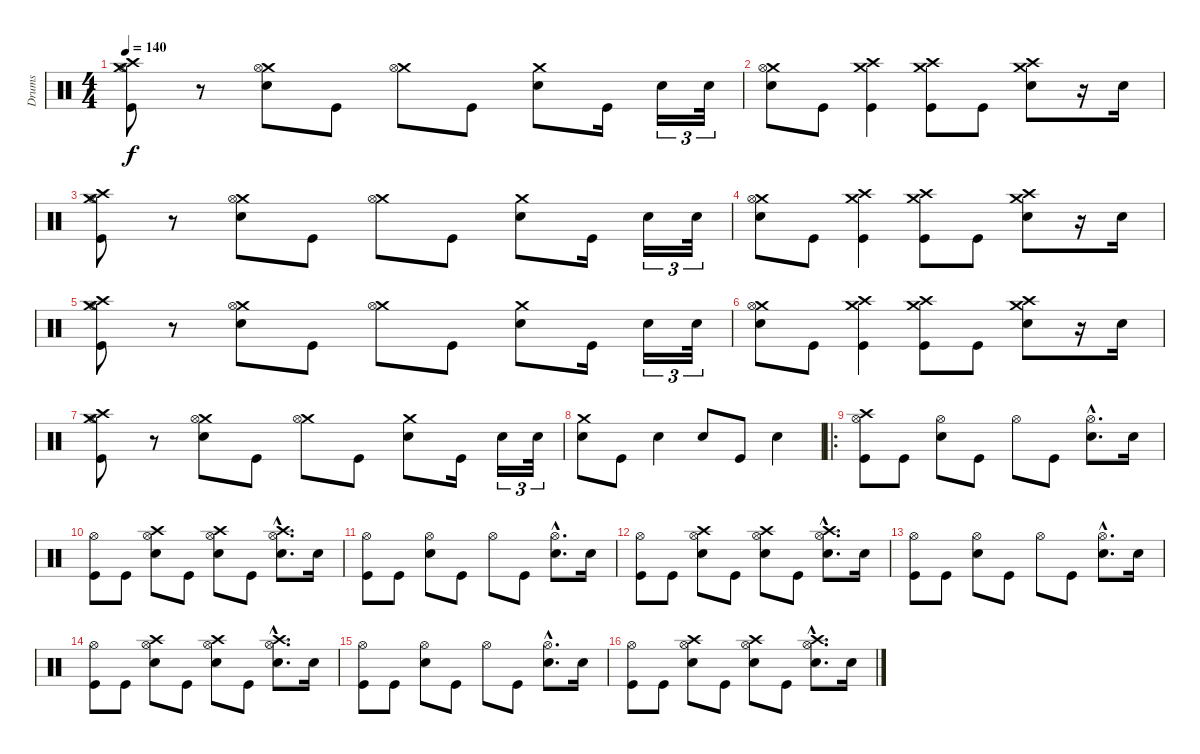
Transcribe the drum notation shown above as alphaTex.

\track ("Drums" "Drums") {instrument percussion}
\staff {score}
\articulation defaults
\ts (4 4)
\tempo 140
\clef neutral
\ks c
("Crash medium (hit)" "Hi-Hat (open)" "Crash high (hit)" "Kick (hit)").8{dy f} r.8 ("Crash medium (hit)" "Electric Snare (hit)" "Hi-Hat (open)").8 "Kick (hit)".8 ("Crash medium (hit)" "Hi-Hat (open)").8 "Kick (hit)".8 ("Crash medium (hit)" "Electric Snare (hit)").8 "Kick (hit)".16 "Electric Snare (hit)".16{tu (3 2)} "Electric Snare (hit)".32{tu (3 2)} |
("Crash medium (hit)" "Hi-Hat (open)" "Electric Snare (hit)").8 "Kick (hit)".8 ("Crash high (hit)" "Crash medium (hit)" "Kick (hit)").4 ("Crash high (hit)" "Crash medium (hit)" "Kick (hit)").8 "Kick (hit)".8 ("Crash high (hit)" "Crash medium (hit)" "Electric Snare (hit)").8 r.16 "Electric Snare (hit)".16 |
("Crash medium (hit)" "Hi-Hat (open)" "Crash high (hit)" "Kick (hit)").8 r.8 ("Crash medium (hit)" "Electric Snare (hit)" "Hi-Hat (open)").8 "Kick (hit)".8 ("Crash medium (hit)" "Hi-Hat (open)").8 "Kick (hit)".8 ("Crash medium (hit)" "Electric Snare (hit)").8 "Kick (hit)".16 "Electric Snare (hit)".16{tu (3 2)} "Electric Snare (hit)".32{tu (3 2)} |
("Crash medium (hit)" "Hi-Hat (open)" "Electric Snare (hit)").8 "Kick (hit)".8 ("Crash high (hit)" "Crash medium (hit)" "Kick (hit)").4 ("Crash high (hit)" "Crash medium (hit)" "Kick (hit)").8 "Kick (hit)".8 ("Crash high (hit)" "Crash medium (hit)" "Electric Snare (hit)").8 r.16 "Electric Snare (hit)".16 |
("Crash medium (hit)" "Hi-Hat (open)" "Crash high (hit)" "Kick (hit)").8 r.8 ("Crash medium (hit)" "Electric Snare (hit)" "Hi-Hat (open)").8 "Kick (hit)".8 ("Crash medium (hit)" "Hi-Hat (open)").8 "Kick (hit)".8 ("Crash medium (hit)" "Electric Snare (hit)").8 "Kick (hit)".16 "Electric Snare (hit)".16{tu (3 2)} "Electric Snare (hit)".32{tu (3 2)} |
("Crash medium (hit)" "Hi-Hat (open)" "Electric Snare (hit)").8 "Kick (hit)".8 ("Crash high (hit)" "Crash medium (hit)" "Kick (hit)").4 ("Crash high (hit)" "Crash medium (hit)" "Kick (hit)").8 "Kick (hit)".8 ("Crash high (hit)" "Crash medium (hit)" "Electric Snare (hit)").8 r.16 "Electric Snare (hit)".16 |
("Crash medium (hit)" "Hi-Hat (open)" "Crash high (hit)" "Kick (hit)").8 r.8 ("Crash medium (hit)" "Electric Snare (hit)" "Hi-Hat (open)").8 "Kick (hit)".8 ("Crash medium (hit)" "Hi-Hat (open)").8 "Kick (hit)".8 ("Crash medium (hit)" "Electric Snare (hit)").8 "Kick (hit)".16 "Electric Snare (hit)".16{tu (3 2)} "Electric Snare (hit)".32{tu (3 2)} |
("Crash medium (hit)" "Electric Snare (hit)").8 "Kick (hit)".8 "Electric Snare (hit)".4 "Electric Snare (hit)".8 "Kick (hit)".8 "Electric Snare (hit)".4 |
\ro
("Hi-Hat (open)" "Kick (hit)" "Crash high (hit)").8 "Kick (hit)".8 ("Hi-Hat (open)" "Electric Snare (hit)").8 "Kick (hit)".8 "Hi-Hat (open)".8 "Kick (hit)".8 ("Hi-Hat (open)"{hac} "Electric Snare (hit)"{hac}).8{d} "Electric Snare (hit)".16 |
("Hi-Hat (open)" "Kick (hit)").8 "Kick (hit)".8 ("Hi-Hat (open)" "Crash high (hit)" "Electric Snare (hit)").8 "Kick (hit)".8 ("Crash high (hit)" "Hi-Hat (open)" "Electric Snare (hit)").8 "Kick (hit)".8 ("Crash high (hit)"{hac} "Hi-Hat (open)"{hac} "Electric Snare (hit)"{hac}).8{d} "Electric Snare (hit)".16 |
("Hi-Hat (open)" "Kick (hit)").8 "Kick (hit)".8 ("Hi-Hat (open)" "Electric Snare (hit)").8 "Kick (hit)".8 "Hi-Hat (open)".8 "Kick (hit)".8 ("Hi-Hat (open)"{hac} "Electric Snare (hit)"{hac}).8{d} "Electric Snare (hit)".16 |
("Hi-Hat (open)" "Kick (hit)").8 "Kick (hit)".8 ("Hi-Hat (open)" "Crash high (hit)" "Electric Snare (hit)").8 "Kick (hit)".8 ("Crash high (hit)" "Hi-Hat (open)" "Electric Snare (hit)").8 "Kick (hit)".8 ("Crash high (hit)"{hac} "Hi-Hat (open)"{hac} "Electric Snare (hit)"{hac}).8{d} "Electric Snare (hit)".16 |
("Hi-Hat (open)" "Kick (hit)").8 "Kick (hit)".8 ("Hi-Hat (open)" "Electric Snare (hit)").8 "Kick (hit)".8 "Hi-Hat (open)".8 "Kick (hit)".8 ("Hi-Hat (open)"{hac} "Electric Snare (hit)"{hac}).8{d} "Electric Snare (hit)".16 |
("Hi-Hat (open)" "Kick (hit)").8 "Kick (hit)".8 ("Hi-Hat (open)" "Crash high (hit)" "Electric Snare (hit)").8 "Kick (hit)".8 ("Crash high (hit)" "Hi-Hat (open)" "Electric Snare (hit)").8 "Kick (hit)".8 ("Crash high (hit)"{hac} "Hi-Hat (open)"{hac} "Electric Snare (hit)"{hac}).8{d} "Electric Snare (hit)".16 |
("Hi-Hat (open)" "Kick (hit)").8 "Kick (hit)".8 ("Hi-Hat (open)" "Electric Snare (hit)").8 "Kick (hit)".8 "Hi-Hat (open)".8 "Kick (hit)".8 ("Hi-Hat (open)"{hac} "Electric Snare (hit)"{hac}).8{d} "Electric Snare (hit)".16 |
("Hi-Hat (open)" "Kick (hit)").8 "Kick (hit)".8 ("Hi-Hat (open)" "Crash high (hit)" "Electric Snare (hit)").8 "Kick (hit)".8 ("Crash high (hit)" "Hi-Hat (open)" "Electric Snare (hit)").8 "Kick (hit)".8 ("Crash high (hit)"{hac} "Hi-Hat (open)"{hac} "Electric Snare (hit)"{hac}).8{d} "Electric Snare (hit)".16
